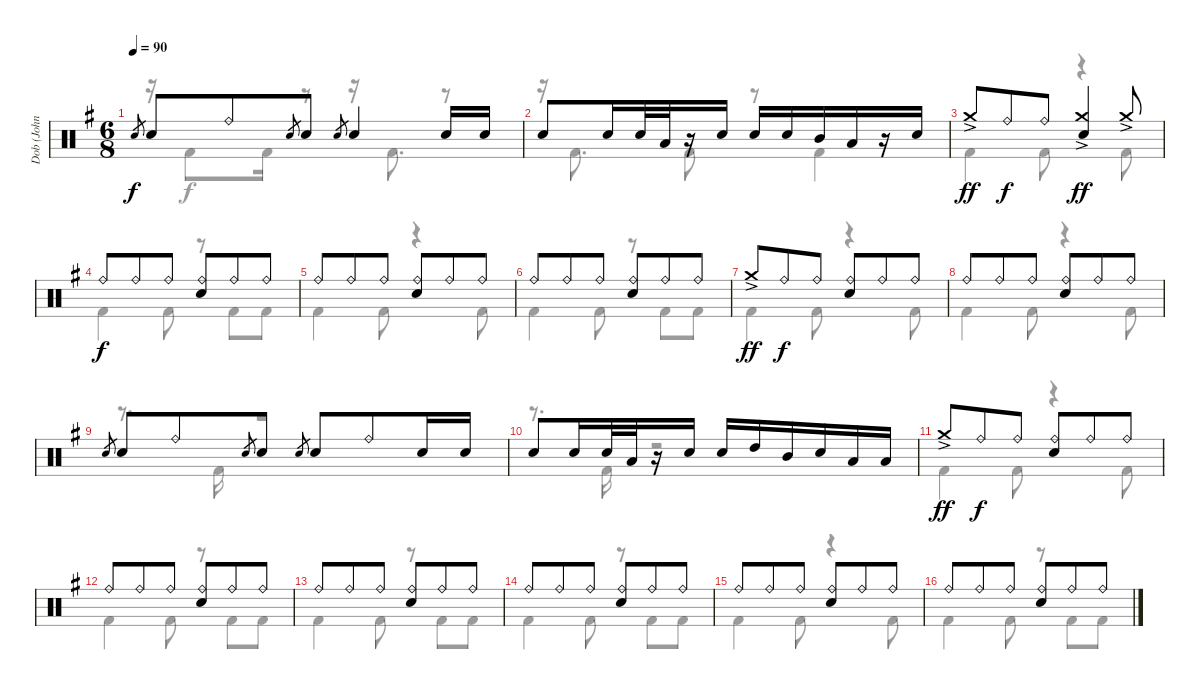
\track ("Dob (John Macaluso)" "Dob (John ") {instrument percussion}
\staff {score}
\articulation defaults
\voice
\ts (6 8)
\tempo 90
\clef neutral
\ks g "Electric Snare (hit)".8{gr dy f} "Electric Snare (hit)".8 "Ride (bell)".8 "Electric Snare (hit)".8{gr} "Electric Snare (hit)".8 "Electric Snare (hit)".8{gr} "Electric Snare (hit)".4 "Electric Snare (hit)".16 "Electric Snare (hit)".16
|
"Electric Snare (hit)".8 "Electric Snare (hit)".16 "Electric Snare (hit)".32 "Low Tom (hit)".32 r.16 "Electric Snare (hit)".16 "Electric Snare (hit)".16 "Electric Snare (hit)".16 "Mid Tom (hit)".16 "Low Tom (hit)".16 r.16 "Electric Snare (hit)".16 |
"Crash medium (hit)"{ac}.8{dy ff} "Ride (bell)".8{dy f} "Ride (bell)".8 ("Crash medium (hit)"{ac} "Electric Snare (hit)").4{dy ff} "Crash medium (hit)"{ac}.8 |
"Ride (bell)".8{dy f} "Ride (bell)".8 "Ride (bell)".8 ("Ride (bell)" "Electric Snare (hit)").8 "Ride (bell)".8 "Ride (bell)".8 |
"Ride (bell)".8 "Ride (bell)".8 "Ride (bell)".8 ("Ride (bell)" "Electric Snare (hit)").8 "Ride (bell)".8 "Ride (bell)".8 |
"Ride (bell)".8 "Ride (bell)".8 "Ride (bell)".8 ("Ride (bell)" "Electric Snare (hit)").8 "Ride (bell)".8 "Ride (bell)".8 |
"Crash medium (hit)"{ac}.8{dy ff} "Ride (bell)".8{dy f} "Ride (bell)".8 ("Ride (bell)" "Electric Snare (hit)").8 "Ride (bell)".8 "Ride (bell)".8 |
"Ride (bell)".8 "Ride (bell)".8 "Ride (bell)".8 ("Ride (bell)" "Electric Snare (hit)").8 "Ride (bell)".8 "Ride (bell)".8 |
"Electric Snare (hit)".8{gr} "Electric Snare (hit)".8 "Ride (bell)".8 "Electric Snare (hit)".8{gr} "Electric Snare (hit)".8 "Electric Snare (hit)".8{gr} "Electric Snare (hit)".8 "Ride (bell)".8 "Electric Snare (hit)".16 "Electric Snare (hit)".16 |
"Electric Snare (hit)".8 "Electric Snare (hit)".16 "Electric Snare (hit)".32 "Low Tom (hit)".32 r.16 "Electric Snare (hit)".16 "Electric Snare (hit)".16 "High Tom (hit)".16 "Mid Tom (hit)".16 "Electric Snare (hit)".16 "Low Tom (hit)".16 "Low Tom (hit)".16 |
"Crash medium (hit)"{ac}.8{dy ff} "Ride (bell)".8{dy f} "Ride (bell)".8 ("Ride (bell)" "Electric Snare (hit)").8 "Ride (bell)".8 "Ride (bell)".8 |
"Ride (bell)".8 "Ride (bell)".8 "Ride (bell)".8 ("Ride (bell)" "Electric Snare (hit)").8 "Ride (bell)".8 "Ride (bell)".8 |
"Ride (bell)".8 "Ride (bell)".8 "Ride (bell)".8 ("Ride (bell)" "Electric Snare (hit)").8 "Ride (bell)".8 "Ride (bell)".8 |
"Ride (bell)".8 "Ride (bell)".8 "Ride (bell)".8 ("Ride (bell)" "Electric Snare (hit)").8 "Ride (bell)".8 "Ride (bell)".8 |
"Ride (bell)".8 "Ride (bell)".8 "Ride (bell)".8 ("Ride (bell)" "Electric Snare (hit)").8 "Ride (bell)".8 "Ride (bell)".8 |
"Ride (bell)".8 "Ride (bell)".8 "Ride (bell)".8 ("Ride (bell)" "Electric Snare (hit)").8 "Ride (bell)".8 "Ride (bell)".8
\voice
\clef neutral
\ottava regular
\simile none
\ks g
r.16{dy f} "Kick (hit) 2".8 "Kick (hit) 2".16 r.8 r.16 "Kick (hit) 2".8{d} r.8 |
r.16 "Kick (hit) 2".8{d beam split} "Kick (hit) 2".8 r.8 "Kick (hit) 2".4 |
"Kick (hit) 2".4 "Kick (hit) 2".8 r.4 "Kick (hit) 2".8 |
"Kick (hit) 2".4 "Kick (hit) 2".8 r.8 "Kick (hit) 2".8 "Kick (hit) 2".8 |
"Kick (hit) 2".4 "Kick (hit) 2".8 r.4 "Kick (hit) 2".8 |
"Kick (hit) 2".4 "Kick (hit) 2".8 r.8 "Kick (hit) 2".8 "Kick (hit) 2".8 |
"Kick (hit) 2".4 "Kick (hit) 2".8 r.4 "Kick (hit) 2".8 |
"Kick (hit) 2".4 "Kick (hit) 2".8 r.4 "Kick (hit) 2".8 |
r.8{d} "Kick (hit) 2".16 r.2 |
r.8{d} "Kick (hit) 2".16 r.2 |
"Kick (hit) 2".4 "Kick (hit) 2".8 r.4 "Kick (hit) 2".8 |
"Kick (hit) 2".4 "Kick (hit) 2".8 r.8 "Kick (hit) 2".8 "Kick (hit) 2".8 |
"Kick (hit) 2".4 "Kick (hit) 2".8 r.8 "Kick (hit) 2".8 "Kick (hit) 2".8 |
"Kick (hit) 2".4 "Kick (hit) 2".8 r.8 "Kick (hit) 2".8 "Kick (hit) 2".8 |
"Kick (hit) 2".4 "Kick (hit) 2".8 r.4 "Kick (hit) 2".8 |
"Kick (hit) 2".4 "Kick (hit) 2".8 r.8 "Kick (hit) 2".8 "Kick (hit) 2".8
